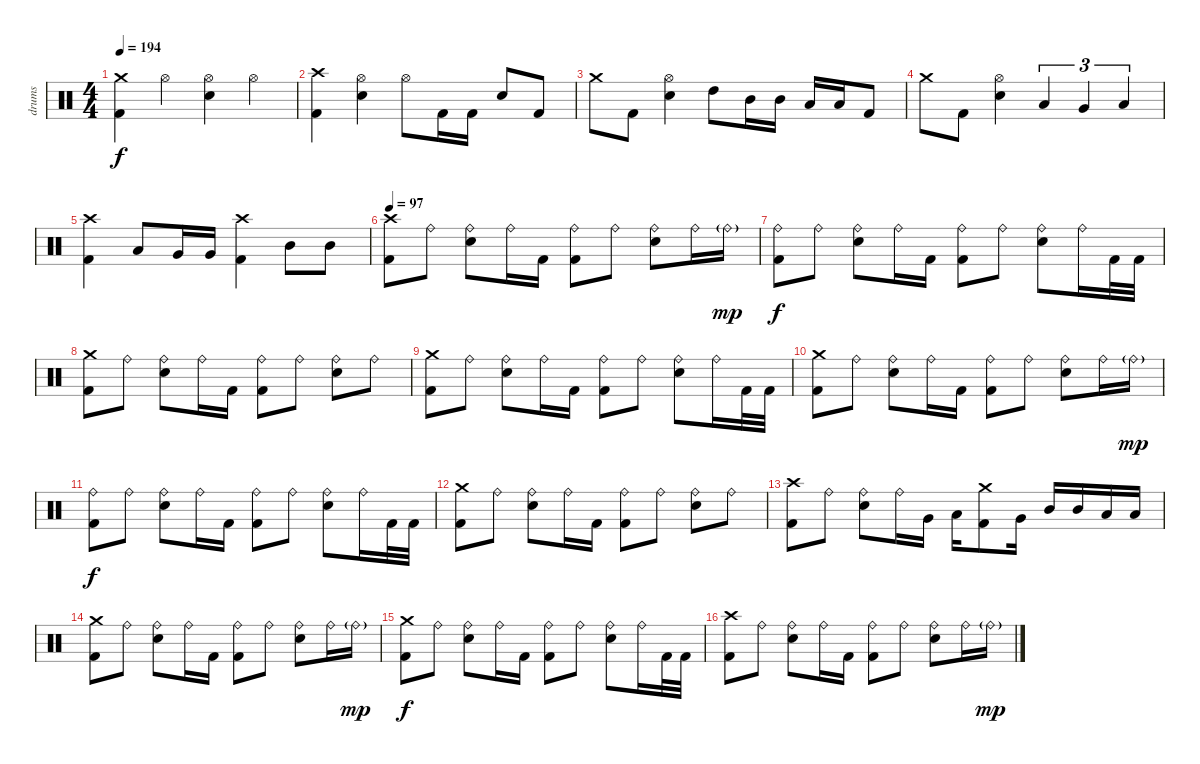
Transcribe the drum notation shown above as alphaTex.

\track ("drums" "drums") {instrument percussion}
\staff {score}
\articulation defaults
\ts (4 4)
\tempo 194
\clef neutral
\ks c
("Crash medium (hit)" "Kick (hit) 2").4{dy f} "Hi-Hat (open)".4 ("Hi-Hat (open)" "Electric Snare (hit)").4 "Hi-Hat (open)".4 |
("Crash high (hit)" "Kick (hit) 2").4 ("Hi-Hat (open)" "Electric Snare (hit)").4 "Hi-Hat (open)".8 "Kick (hit) 2".16 "Kick (hit) 2".16 "Electric Snare (hit)".8 "Kick (hit) 2".8 |
"Crash medium (hit)".8 "Kick (hit) 2".8 ("Hi-Hat (open)" "Electric Snare (hit)").4 "High Tom (hit)".8 "Mid Tom (hit)".16 "Mid Tom (hit)".16 "Low Tom (hit)".16 "Low Tom (hit)".16 "Kick (hit) 2".8 |
"Crash medium (hit)".8 "Kick (hit) 2".8 ("Hi-Hat (open)" "Electric Snare (hit)").4 "Low Tom (hit)".4{tu (3 2)} "Very Low Tom (hit)".4{tu (3 2)} "Low Floor Tom (hit)".4{tu (3 2)} |
("Crash high (hit)" "Kick (hit) 2").4 "Low Tom (hit)".8 "Very Low Tom (hit)".16 "Very Low Tom (hit)".16 ("Crash high (hit)" "Kick (hit) 2").4 "Mid Tom (hit)".8 "Mid Tom (hit)".8 |
\tempo 97
("Crash high (hit)" "Kick (hit) 2").8 "Ride (bell)".8 ("Ride (bell)" "Electric Snare (hit)").8 "Ride (bell)".16 "Kick (hit) 2".16 ("Ride (bell)" "Kick (hit) 2").8 "Ride (bell)".8 ("Ride (bell)" "Electric Snare (hit)").8 "Ride (bell)".16 "Ride (bell)"{g}.16{dy mp} |
("Ride (bell)" "Kick (hit) 2").8{dy f} "Ride (bell)".8 ("Ride (bell)" "Electric Snare (hit)").8 "Ride (bell)".16 "Kick (hit) 2".16 ("Ride (bell)" "Kick (hit) 2").8 "Ride (bell)".8 ("Ride (bell)" "Electric Snare (hit)").8 "Ride (bell)".16 "Kick (hit) 2".32 "Kick (hit) 2".32 |
("Crash medium (hit)" "Kick (hit) 2").8 "Ride (bell)".8 ("Ride (bell)" "Electric Snare (hit)").8 "Ride (bell)".16 "Kick (hit) 2".16 ("Ride (bell)" "Kick (hit) 2").8 "Ride (bell)".8 ("Ride (bell)" "Electric Snare (hit)").8 "Ride (bell)".8 |
("Crash medium (hit)" "Kick (hit) 2").8 "Ride (bell)".8 ("Ride (bell)" "Electric Snare (hit)").8 "Ride (bell)".16 "Kick (hit) 2".16 ("Ride (bell)" "Kick (hit) 2").8 "Ride (bell)".8 ("Ride (bell)" "Electric Snare (hit)").8 "Ride (bell)".16 "Kick (hit) 2".32 "Kick (hit) 2".32 |
("Crash medium (hit)" "Kick (hit) 2").8 "Ride (bell)".8 ("Ride (bell)" "Electric Snare (hit)").8 "Ride (bell)".16 "Kick (hit) 2".16 ("Ride (bell)" "Kick (hit) 2").8 "Ride (bell)".8 ("Ride (bell)" "Electric Snare (hit)").8 "Ride (bell)".16 "Ride (bell)"{g}.16{dy mp} |
("Ride (bell)" "Kick (hit) 2").8{dy f} "Ride (bell)".8 ("Ride (bell)" "Electric Snare (hit)").8 "Ride (bell)".16 "Kick (hit) 2".16 ("Ride (bell)" "Kick (hit) 2").8 "Ride (bell)".8 ("Ride (bell)" "Electric Snare (hit)").8 "Ride (bell)".16 "Kick (hit) 2".32 "Kick (hit) 2".32 |
("Crash medium (hit)" "Kick (hit) 2").8 "Ride (bell)".8 ("Ride (bell)" "Electric Snare (hit)").8 "Ride (bell)".16 "Kick (hit) 2".16 ("Ride (bell)" "Kick (hit) 2").8 "Ride (bell)".8 ("Ride (bell)" "Electric Snare (hit)").8 "Ride (bell)".8 |
("Crash high (hit)" "Kick (hit) 2").8 "Ride (bell)".8 ("Ride (bell)" "Electric Snare (hit)").8 "Ride (bell)".16 "Very Low Tom (hit)".16 "Low Floor Tom (hit)".16 ("Crash medium (hit)" "Kick (hit) 2").8 "Very Low Tom (hit)".16 "Mid Tom (hit)".16 "Mid Tom (hit)".16 "Low Tom (hit)".16 "Low Tom (hit)".16 |
("Crash medium (hit)" "Kick (hit) 2").8 "Ride (bell)".8 ("Ride (bell)" "Electric Snare (hit)").8 "Ride (bell)".16 "Kick (hit) 2".16 ("Ride (bell)" "Kick (hit) 2").8 "Ride (bell)".8 ("Ride (bell)" "Electric Snare (hit)").8 "Ride (bell)".16 "Ride (bell)"{g}.16{dy mp} |
("Crash medium (hit)" "Kick (hit) 2").8{dy f} "Ride (bell)".8 ("Ride (bell)" "Electric Snare (hit)").8 "Ride (bell)".16 "Kick (hit) 2".16 ("Ride (bell)" "Kick (hit) 2").8 "Ride (bell)".8 ("Ride (bell)" "Electric Snare (hit)").8 "Ride (bell)".16 "Kick (hit) 2".32 "Kick (hit) 2".32 |
("Crash high (hit)" "Kick (hit) 2").8 "Ride (bell)".8 ("Ride (bell)" "Electric Snare (hit)").8 "Ride (bell)".16 "Kick (hit) 2".16 ("Ride (bell)" "Kick (hit) 2").8 "Ride (bell)".8 ("Ride (bell)" "Electric Snare (hit)").8 "Ride (bell)".16 "Ride (bell)"{g}.16{dy mp}
